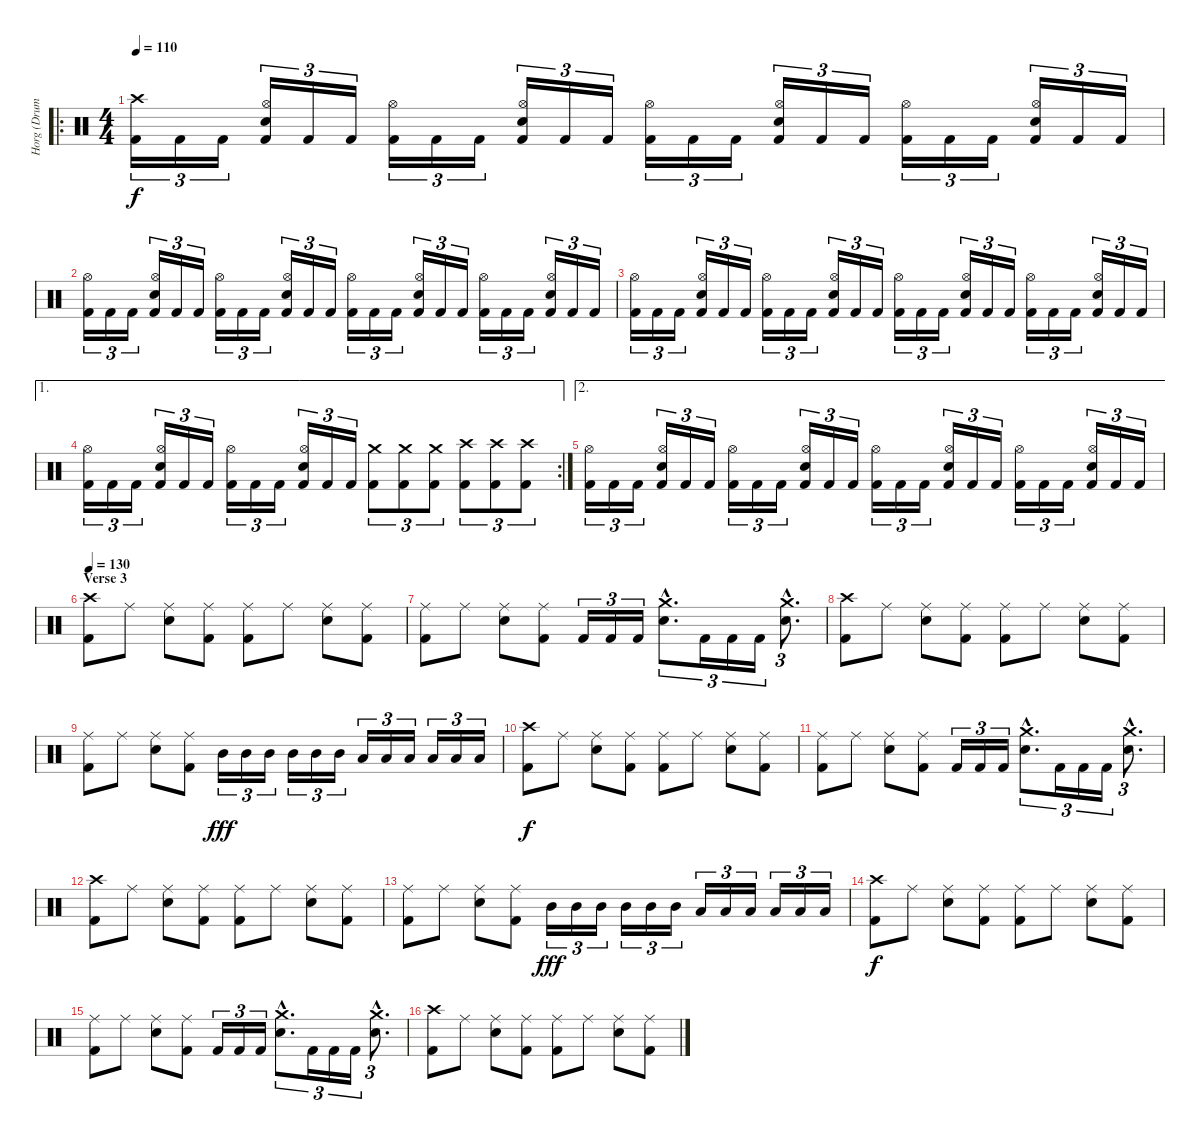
\track ("Horg (Drums)" "Horg (Drum") {instrument percussion}
\staff {score}
\articulation defaults
\ro
\ts (4 4)
\tempo 110
\clef neutral
\ks c
("Crash high (hit)" "Kick (hit) 2").16{tu (3 2) dy f} "Kick (hit) 2".16{tu (3 2)} "Kick (hit) 2".16{tu (3 2)} ("Hi-Hat (open)" "Electric Snare (hit)" "Kick (hit) 2").16{tu (3 2)} "Kick (hit) 2".16{tu (3 2)} "Kick (hit) 2".16{tu (3 2)} ("Hi-Hat (open)" "Kick (hit) 2").16{tu (3 2)} "Kick (hit) 2".16{tu (3 2)} "Kick (hit) 2".16{tu (3 2)} ("Hi-Hat (open)" "Electric Snare (hit)" "Kick (hit) 2").16{tu (3 2)} "Kick (hit) 2".16{tu (3 2)} "Kick (hit) 2".16{tu (3 2)} ("Hi-Hat (open)" "Kick (hit) 2").16{tu (3 2)} "Kick (hit) 2".16{tu (3 2)} "Kick (hit) 2".16{tu (3 2)} ("Hi-Hat (open)" "Electric Snare (hit)" "Kick (hit) 2").16{tu (3 2)} "Kick (hit) 2".16{tu (3 2)} "Kick (hit) 2".16{tu (3 2)} ("Hi-Hat (open)" "Kick (hit) 2").16{tu (3 2)} "Kick (hit) 2".16{tu (3 2)} "Kick (hit) 2".16{tu (3 2)} ("Hi-Hat (open)" "Electric Snare (hit)" "Kick (hit) 2").16{tu (3 2)} "Kick (hit) 2".16{tu (3 2)} "Kick (hit) 2".16{tu (3 2)} |
("Hi-Hat (open)" "Kick (hit) 2").16{tu (3 2)} "Kick (hit) 2".16{tu (3 2)} "Kick (hit) 2".16{tu (3 2)} ("Hi-Hat (open)" "Electric Snare (hit)" "Kick (hit) 2").16{tu (3 2)} "Kick (hit) 2".16{tu (3 2)} "Kick (hit) 2".16{tu (3 2)} ("Hi-Hat (open)" "Kick (hit) 2").16{tu (3 2)} "Kick (hit) 2".16{tu (3 2)} "Kick (hit) 2".16{tu (3 2)} ("Hi-Hat (open)" "Electric Snare (hit)" "Kick (hit) 2").16{tu (3 2)} "Kick (hit) 2".16{tu (3 2)} "Kick (hit) 2".16{tu (3 2)} ("Hi-Hat (open)" "Kick (hit) 2").16{tu (3 2)} "Kick (hit) 2".16{tu (3 2)} "Kick (hit) 2".16{tu (3 2)} ("Hi-Hat (open)" "Electric Snare (hit)" "Kick (hit) 2").16{tu (3 2)} "Kick (hit) 2".16{tu (3 2)} "Kick (hit) 2".16{tu (3 2)} ("Hi-Hat (open)" "Kick (hit) 2").16{tu (3 2)} "Kick (hit) 2".16{tu (3 2)} "Kick (hit) 2".16{tu (3 2)} ("Hi-Hat (open)" "Electric Snare (hit)" "Kick (hit) 2").16{tu (3 2)} "Kick (hit) 2".16{tu (3 2)} "Kick (hit) 2".16{tu (3 2)} |
("Hi-Hat (open)" "Kick (hit) 2").16{tu (3 2)} "Kick (hit) 2".16{tu (3 2)} "Kick (hit) 2".16{tu (3 2)} ("Hi-Hat (open)" "Electric Snare (hit)" "Kick (hit) 2").16{tu (3 2)} "Kick (hit) 2".16{tu (3 2)} "Kick (hit) 2".16{tu (3 2)} ("Hi-Hat (open)" "Kick (hit) 2").16{tu (3 2)} "Kick (hit) 2".16{tu (3 2)} "Kick (hit) 2".16{tu (3 2)} ("Hi-Hat (open)" "Electric Snare (hit)" "Kick (hit) 2").16{tu (3 2)} "Kick (hit) 2".16{tu (3 2)} "Kick (hit) 2".16{tu (3 2)} ("Hi-Hat (open)" "Kick (hit) 2").16{tu (3 2)} "Kick (hit) 2".16{tu (3 2)} "Kick (hit) 2".16{tu (3 2)} ("Hi-Hat (open)" "Electric Snare (hit)" "Kick (hit) 2").16{tu (3 2)} "Kick (hit) 2".16{tu (3 2)} "Kick (hit) 2".16{tu (3 2)} ("Hi-Hat (open)" "Kick (hit) 2").16{tu (3 2)} "Kick (hit) 2".16{tu (3 2)} "Kick (hit) 2".16{tu (3 2)} ("Hi-Hat (open)" "Electric Snare (hit)" "Kick (hit) 2").16{tu (3 2)} "Kick (hit) 2".16{tu (3 2)} "Kick (hit) 2".16{tu (3 2)} |
\ae 1
\rc 2
("Hi-Hat (open)" "Kick (hit) 2").16{tu (3 2)} "Kick (hit) 2".16{tu (3 2)} "Kick (hit) 2".16{tu (3 2)} ("Hi-Hat (open)" "Electric Snare (hit)" "Kick (hit) 2").16{tu (3 2)} "Kick (hit) 2".16{tu (3 2)} "Kick (hit) 2".16{tu (3 2)} ("Hi-Hat (open)" "Kick (hit) 2").16{tu (3 2)} "Kick (hit) 2".16{tu (3 2)} "Kick (hit) 2".16{tu (3 2)} ("Hi-Hat (open)" "Electric Snare (hit)" "Kick (hit) 2").16{tu (3 2)} "Kick (hit) 2".16{tu (3 2)} "Kick (hit) 2".16{tu (3 2)} ("Crash medium (hit)" "Kick (hit) 2").8{tu (3 2)} ("Crash medium (hit)" "Kick (hit) 2").8{tu (3 2)} ("Crash medium (hit)" "Kick (hit) 2").8{tu (3 2)} ("Crash high (hit)" "Kick (hit) 2").8{tu (3 2)} ("Crash high (hit)" "Kick (hit) 2").8{tu (3 2)} ("Crash high (hit)" "Kick (hit) 2").8{tu (3 2)} |
\ae 2
("Hi-Hat (open)" "Kick (hit) 2").16{tu (3 2)} "Kick (hit) 2".16{tu (3 2)} "Kick (hit) 2".16{tu (3 2)} ("Hi-Hat (open)" "Electric Snare (hit)" "Kick (hit) 2").16{tu (3 2)} "Kick (hit) 2".16{tu (3 2)} "Kick (hit) 2".16{tu (3 2)} ("Hi-Hat (open)" "Kick (hit) 2").16{tu (3 2)} "Kick (hit) 2".16{tu (3 2)} "Kick (hit) 2".16{tu (3 2)} ("Hi-Hat (open)" "Electric Snare (hit)" "Kick (hit) 2").16{tu (3 2)} "Kick (hit) 2".16{tu (3 2)} "Kick (hit) 2".16{tu (3 2)} ("Hi-Hat (open)" "Kick (hit) 2").16{tu (3 2)} "Kick (hit) 2".16{tu (3 2)} "Kick (hit) 2".16{tu (3 2)} ("Hi-Hat (open)" "Electric Snare (hit)" "Kick (hit) 2").16{tu (3 2)} "Kick (hit) 2".16{tu (3 2)} "Kick (hit) 2".16{tu (3 2)} ("Hi-Hat (open)" "Kick (hit) 2").16{tu (3 2)} "Kick (hit) 2".16{tu (3 2)} "Kick (hit) 2".16{tu (3 2)} ("Hi-Hat (open)" "Electric Snare (hit)" "Kick (hit) 2").16{tu (3 2)} "Kick (hit) 2".16{tu (3 2)} "Kick (hit) 2".16{tu (3 2)} |
\section ("" "Verse 3")
\tempo 130
("Crash high (hit)" "Kick (hit) 2").8 "Ride (middle)".8 ("Ride (middle)" "Electric Snare (hit)").8 ("Ride (middle)" "Kick (hit) 2").8 ("Ride (middle)" "Kick (hit) 2").8 "Ride (middle)".8 ("Ride (middle)" "Electric Snare (hit)").8 ("Ride (middle)" "Kick (hit) 2").8 |
("Ride (middle)" "Kick (hit) 2").8 "Ride (middle)".8 ("Ride (middle)" "Electric Snare (hit)").8 ("Ride (middle)" "Kick (hit) 2").8 "Kick (hit) 2".16{tu (3 2)} "Kick (hit) 2".16{tu (3 2)} "Kick (hit) 2".16{tu (3 2)} ("Crash medium (hit)"{hac} "Electric Snare (hit)"{hac}).8{d tu (3 2)} "Kick (hit) 2".16{tu (3 2)} "Kick (hit) 2".16{tu (3 2)} "Kick (hit) 2".16{tu (3 2)} ("Crash medium (hit)"{hac} "Electric Snare (hit)"{hac}).8{d tu (3 2)} |
("Crash high (hit)" "Kick (hit) 2").8 "Ride (middle)".8 ("Ride (middle)" "Electric Snare (hit)").8 ("Ride (middle)" "Kick (hit) 2").8 ("Ride (middle)" "Kick (hit) 2").8 "Ride (middle)".8 ("Ride (middle)" "Electric Snare (hit)").8 ("Ride (middle)" "Kick (hit) 2").8 |
("Ride (middle)" "Kick (hit) 2").8 "Ride (middle)".8 ("Ride (middle)" "Electric Snare (hit)").8 ("Ride (middle)" "Kick (hit) 2").8 "Mid Tom (hit)".16{tu (3 2) dy fff} "Mid Tom (hit)".16{tu (3 2)} "Mid Tom (hit)".16{tu (3 2)} "Mid Tom (hit)".16{tu (3 2)} "Mid Tom (hit)".16{tu (3 2)} "Mid Tom (hit)".16{tu (3 2)} "Low Tom (hit)".16{tu (3 2)} "Low Tom (hit)".16{tu (3 2)} "Low Tom (hit)".16{tu (3 2)} "Low Tom (hit)".16{tu (3 2)} "Low Tom (hit)".16{tu (3 2)} "Low Tom (hit)".16{tu (3 2)} |
("Crash high (hit)" "Kick (hit) 2").8{dy f} "Ride (middle)".8 ("Ride (middle)" "Electric Snare (hit)").8 ("Ride (middle)" "Kick (hit) 2").8 ("Ride (middle)" "Kick (hit) 2").8 "Ride (middle)".8 ("Ride (middle)" "Electric Snare (hit)").8 ("Ride (middle)" "Kick (hit) 2").8 |
("Ride (middle)" "Kick (hit) 2").8 "Ride (middle)".8 ("Ride (middle)" "Electric Snare (hit)").8 ("Ride (middle)" "Kick (hit) 2").8 "Kick (hit) 2".16{tu (3 2)} "Kick (hit) 2".16{tu (3 2)} "Kick (hit) 2".16{tu (3 2)} ("Crash medium (hit)"{hac} "Electric Snare (hit)"{hac}).8{d tu (3 2)} "Kick (hit) 2".16{tu (3 2)} "Kick (hit) 2".16{tu (3 2)} "Kick (hit) 2".16{tu (3 2)} ("Crash medium (hit)"{hac} "Electric Snare (hit)"{hac}).8{d tu (3 2)} |
("Crash high (hit)" "Kick (hit) 2").8 "Ride (middle)".8 ("Ride (middle)" "Electric Snare (hit)").8 ("Ride (middle)" "Kick (hit) 2").8 ("Ride (middle)" "Kick (hit) 2").8 "Ride (middle)".8 ("Ride (middle)" "Electric Snare (hit)").8 ("Ride (middle)" "Kick (hit) 2").8 |
("Ride (middle)" "Kick (hit) 2").8 "Ride (middle)".8 ("Ride (middle)" "Electric Snare (hit)").8 ("Ride (middle)" "Kick (hit) 2").8 "Mid Tom (hit)".16{tu (3 2) dy fff} "Mid Tom (hit)".16{tu (3 2)} "Mid Tom (hit)".16{tu (3 2)} "Mid Tom (hit)".16{tu (3 2)} "Mid Tom (hit)".16{tu (3 2)} "Mid Tom (hit)".16{tu (3 2)} "Low Tom (hit)".16{tu (3 2)} "Low Tom (hit)".16{tu (3 2)} "Low Tom (hit)".16{tu (3 2)} "Low Tom (hit)".16{tu (3 2)} "Low Tom (hit)".16{tu (3 2)} "Low Tom (hit)".16{tu (3 2)} |
("Crash high (hit)" "Kick (hit) 2").8{dy f} "Ride (middle)".8 ("Ride (middle)" "Electric Snare (hit)").8 ("Ride (middle)" "Kick (hit) 2").8 ("Ride (middle)" "Kick (hit) 2").8 "Ride (middle)".8 ("Ride (middle)" "Electric Snare (hit)").8 ("Ride (middle)" "Kick (hit) 2").8 |
("Ride (middle)" "Kick (hit) 2").8 "Ride (middle)".8 ("Ride (middle)" "Electric Snare (hit)").8 ("Ride (middle)" "Kick (hit) 2").8 "Kick (hit) 2".16{tu (3 2)} "Kick (hit) 2".16{tu (3 2)} "Kick (hit) 2".16{tu (3 2)} ("Crash medium (hit)"{hac} "Electric Snare (hit)"{hac}).8{d tu (3 2)} "Kick (hit) 2".16{tu (3 2)} "Kick (hit) 2".16{tu (3 2)} "Kick (hit) 2".16{tu (3 2)} ("Crash medium (hit)"{hac} "Electric Snare (hit)"{hac}).8{d tu (3 2)} |
("Crash high (hit)" "Kick (hit) 2").8 "Ride (middle)".8 ("Ride (middle)" "Electric Snare (hit)").8 ("Ride (middle)" "Kick (hit) 2").8 ("Ride (middle)" "Kick (hit) 2").8 "Ride (middle)".8 ("Ride (middle)" "Electric Snare (hit)").8 ("Ride (middle)" "Kick (hit) 2").8
